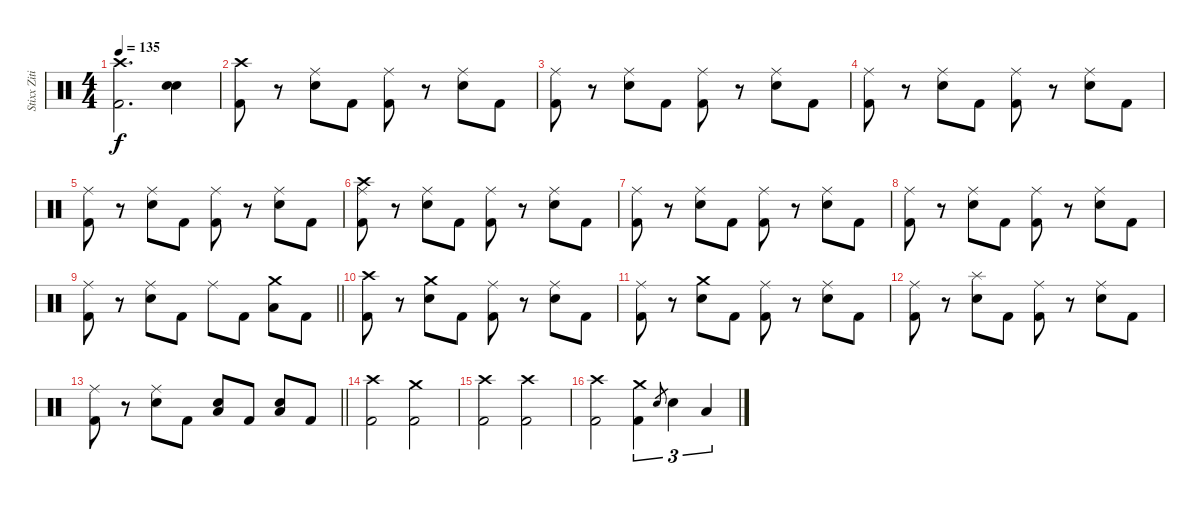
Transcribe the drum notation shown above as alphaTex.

\track ("Stixx Zitinya Drums" "Stixx Ziti") {instrument percussion}
\staff {score}
\articulation defaults
\ts (4 4)
\tempo 135
\clef neutral
\ks c
("Crash high (hit)" "Kick (hit) 2").2{d dy f} ("Snare (hit) 2" "Snare (hit) 2").4 |
("Crash high (hit)" "Kick (hit) 2").8 r.8 ("Ride (middle)" "Snare (hit) 2").8 "Kick (hit) 2".8 ("Ride (middle)" "Kick (hit) 2").8 r.8 ("Ride (middle)" "Snare (hit) 2").8 "Kick (hit) 2".8 |
("Ride (middle)" "Kick (hit) 2").8 r.8 ("Ride (middle)" "Snare (hit) 2").8 "Kick (hit) 2".8 ("Ride (middle)" "Kick (hit) 2").8 r.8 ("Ride (middle)" "Snare (hit) 2").8 "Kick (hit) 2".8 |
("Ride (middle)" "Kick (hit) 2").8 r.8 ("Ride (middle)" "Snare (hit) 2").8 "Kick (hit) 2".8 ("Ride (middle)" "Kick (hit) 2").8 r.8 ("Ride (middle)" "Snare (hit) 2").8 "Kick (hit) 2".8 |
("Ride (middle)" "Kick (hit) 2").8 r.8 ("Ride (middle)" "Snare (hit) 2").8 "Kick (hit) 2".8 ("Ride (middle)" "Kick (hit) 2").8 r.8 ("Ride (middle)" "Snare (hit) 2").8 "Kick (hit) 2".8 |
("Crash high (hit)" "Ride (middle)" "Kick (hit) 2").8 r.8 ("Ride (middle)" "Snare (hit) 2").8 "Kick (hit) 2".8 ("Ride (middle)" "Kick (hit) 2").8 r.8 ("Ride (middle)" "Snare (hit) 2").8 "Kick (hit) 2".8 |
("Ride (middle)" "Kick (hit) 2").8 r.8 ("Ride (middle)" "Snare (hit) 2").8 "Kick (hit) 2".8 ("Ride (middle)" "Kick (hit) 2").8 r.8 ("Ride (middle)" "Snare (hit) 2").8 "Kick (hit) 2".8 |
("Ride (middle)" "Kick (hit) 2").8 r.8 ("Ride (middle)" "Snare (hit) 2").8 "Kick (hit) 2".8 ("Ride (middle)" "Kick (hit) 2").8 r.8 ("Ride (middle)" "Snare (hit) 2").8 "Kick (hit) 2".8 |
\barLineRight lightlight
("Ride (middle)" "Kick (hit) 2").8 r.8 ("Ride (middle)" "Snare (hit) 2").8 "Kick (hit) 2".8 "Ride (middle)".8 "Kick (hit) 2".8 ("Crash medium (hit)" "Low Floor Tom (hit)").8 "Kick (hit) 2".8 |
("Crash high (hit)" "Kick (hit) 2").8 r.8 ("Crash medium (hit)" "Snare (hit) 2").8 "Kick (hit) 2".8 ("Ride (middle)" "Kick (hit) 2").8 r.8 ("Ride (middle)" "Snare (hit) 2").8 "Kick (hit) 2".8 |
("Ride (middle)" "Kick (hit) 2").8 r.8 ("Crash medium (hit)" "Snare (hit) 2").8 "Kick (hit) 2".8 ("Ride (middle)" "Kick (hit) 2").8 r.8 ("Ride (middle)" "Snare (hit) 2").8 "Kick (hit) 2".8 |
("Ride (middle)" "Kick (hit) 2").8 r.8 ("Splash (hit)" "Snare (hit) 2").8 "Kick (hit) 2".8 ("Ride (middle)" "Kick (hit) 2").8 r.8 ("Ride (middle)" "Snare (hit) 2").8 "Kick (hit) 2".8 |
\barLineRight lightlight
("Ride (middle)" "Kick (hit) 2").8 r.8 ("Ride (middle)" "Snare (hit) 2").8 "Kick (hit) 2".8 ("Snare (hit) 2" "Low Floor Tom (hit)").8 "Kick (hit) 2".8 ("Snare (hit) 2" "Low Floor Tom (hit)").8 "Kick (hit) 2".8 |
("Crash high (hit)" "Kick (hit) 2").2 ("Crash medium (hit)" "Kick (hit) 2").2 |
("Crash high (hit)" "Kick (hit) 2").2 ("Crash high (hit)" "Kick (hit) 2").2 |
("Crash high (hit)" "Kick (hit) 2").2 ("Crash medium (hit)" "Kick (hit) 2").4{tu (3 2)} "Snare (hit) 2".8{gr} "Snare (hit) 2".4{tu (3 2)} "Low Floor Tom (hit)".4{tu (3 2)}
